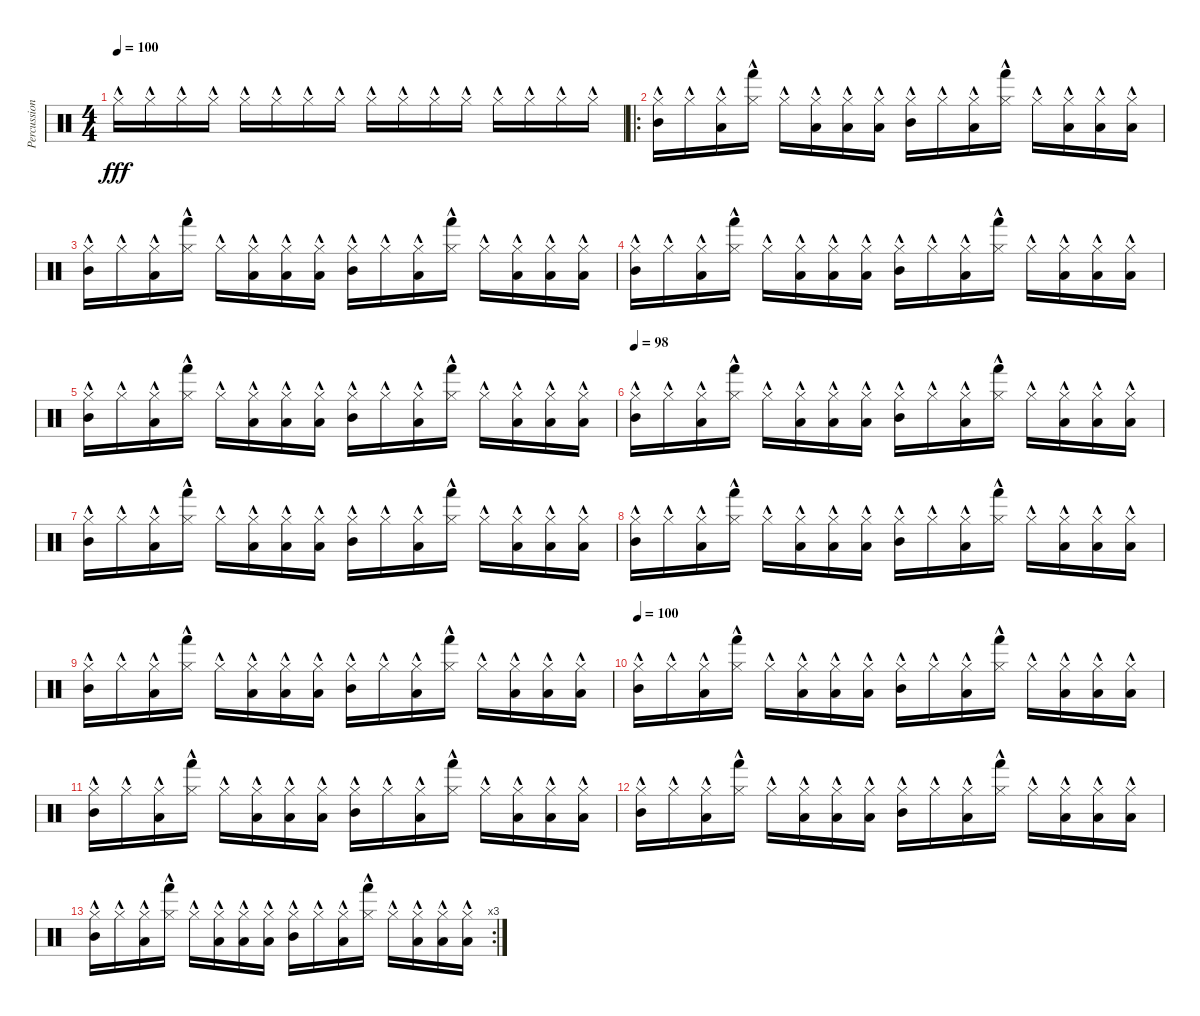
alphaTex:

\track ("Percussion" "Percussion") {instrument percussion}
\staff {score}
\articulation defaults
\ts (4 4)
\tempo 100
\clef neutral
\ks c "Hi-Hat (closed)"{hac}.16{dy fff} "Hi-Hat (closed)"{hac}.16 "Hi-Hat (closed)"{hac}.16 "Hi-Hat (closed)"{hac}.16 "Hi-Hat (closed)"{hac}.16 "Hi-Hat (closed)"{hac}.16 "Hi-Hat (closed)"{hac}.16 "Hi-Hat (closed)"{hac}.16 "Hi-Hat (closed)"{hac}.16 "Hi-Hat (closed)"{hac}.16 "Hi-Hat (closed)"{hac}.16 "Hi-Hat (closed)"{hac}.16 "Hi-Hat (closed)"{hac}.16 "Hi-Hat (closed)"{hac}.16 "Hi-Hat (closed)"{hac}.16 "Hi-Hat (closed)"{hac}.16
|
\ro
("Hi-Hat (closed)"{hac} "Mid Tom (hit)"{hac}).16 "Hi-Hat (closed)"{hac}.16 ("Hi-Hat (closed)"{hac} "Low Tom (hit)"{hac}).16 ("Hi-Hat (closed)"{hac} "Hand (hit)"{hac}).16 "Hi-Hat (closed)"{hac}.16 ("Hi-Hat (closed)"{hac} "Low Tom (hit)"{hac}).16 ("Hi-Hat (closed)"{hac} "Low Tom (hit)"{hac}).16 ("Hi-Hat (closed)"{hac} "Low Tom (hit)"{hac}).16 ("Hi-Hat (closed)"{hac} "Mid Tom (hit)"{hac}).16 "Hi-Hat (closed)"{hac}.16 ("Hi-Hat (closed)"{hac} "Low Tom (hit)"{hac}).16 ("Hi-Hat (closed)"{hac} "Hand (hit)"{hac}).16 "Hi-Hat (closed)"{hac}.16 ("Hi-Hat (closed)"{hac} "Low Tom (hit)"{hac}).16 ("Hi-Hat (closed)"{hac} "Low Tom (hit)"{hac}).16 ("Hi-Hat (closed)"{hac} "Low Tom (hit)"{hac}).16 |
("Hi-Hat (closed)"{hac} "Mid Tom (hit)"{hac}).16 "Hi-Hat (closed)"{hac}.16 ("Hi-Hat (closed)"{hac} "Low Tom (hit)"{hac}).16 ("Hi-Hat (closed)"{hac} "Hand (hit)"{hac}).16 "Hi-Hat (closed)"{hac}.16 ("Hi-Hat (closed)"{hac} "Low Tom (hit)"{hac}).16 ("Hi-Hat (closed)"{hac} "Low Tom (hit)"{hac}).16 ("Hi-Hat (closed)"{hac} "Low Tom (hit)"{hac}).16 ("Hi-Hat (closed)"{hac} "Mid Tom (hit)"{hac}).16 "Hi-Hat (closed)"{hac}.16 ("Hi-Hat (closed)"{hac} "Low Tom (hit)"{hac}).16 ("Hi-Hat (closed)"{hac} "Hand (hit)"{hac}).16 "Hi-Hat (closed)"{hac}.16 ("Hi-Hat (closed)"{hac} "Low Tom (hit)"{hac}).16 ("Hi-Hat (closed)"{hac} "Low Tom (hit)"{hac}).16 ("Hi-Hat (closed)"{hac} "Low Tom (hit)"{hac}).16 |
("Hi-Hat (closed)"{hac} "Mid Tom (hit)"{hac}).16 "Hi-Hat (closed)"{hac}.16 ("Hi-Hat (closed)"{hac} "Low Tom (hit)"{hac}).16 ("Hi-Hat (closed)"{hac} "Hand (hit)"{hac}).16 "Hi-Hat (closed)"{hac}.16 ("Hi-Hat (closed)"{hac} "Low Tom (hit)"{hac}).16 ("Hi-Hat (closed)"{hac} "Low Tom (hit)"{hac}).16 ("Hi-Hat (closed)"{hac} "Low Tom (hit)"{hac}).16 ("Hi-Hat (closed)"{hac} "Mid Tom (hit)"{hac}).16 "Hi-Hat (closed)"{hac}.16 ("Hi-Hat (closed)"{hac} "Low Tom (hit)"{hac}).16 ("Hi-Hat (closed)"{hac} "Hand (hit)"{hac}).16 "Hi-Hat (closed)"{hac}.16 ("Hi-Hat (closed)"{hac} "Low Tom (hit)"{hac}).16 ("Hi-Hat (closed)"{hac} "Low Tom (hit)"{hac}).16 ("Hi-Hat (closed)"{hac} "Low Tom (hit)"{hac}).16 |
("Hi-Hat (closed)"{hac} "Mid Tom (hit)"{hac}).16 "Hi-Hat (closed)"{hac}.16 ("Hi-Hat (closed)"{hac} "Low Tom (hit)"{hac}).16 ("Hi-Hat (closed)"{hac} "Hand (hit)"{hac}).16 "Hi-Hat (closed)"{hac}.16 ("Hi-Hat (closed)"{hac} "Low Tom (hit)"{hac}).16 ("Hi-Hat (closed)"{hac} "Low Tom (hit)"{hac}).16 ("Hi-Hat (closed)"{hac} "Low Tom (hit)"{hac}).16 ("Hi-Hat (closed)"{hac} "Mid Tom (hit)"{hac}).16 "Hi-Hat (closed)"{hac}.16 ("Hi-Hat (closed)"{hac} "Low Tom (hit)"{hac}).16 ("Hi-Hat (closed)"{hac} "Hand (hit)"{hac}).16 "Hi-Hat (closed)"{hac}.16 ("Hi-Hat (closed)"{hac} "Low Tom (hit)"{hac}).16 ("Hi-Hat (closed)"{hac} "Low Tom (hit)"{hac}).16 ("Hi-Hat (closed)"{hac} "Low Tom (hit)"{hac}).16 |
\tempo 98
("Hi-Hat (closed)"{hac} "Mid Tom (hit)"{hac}).16 "Hi-Hat (closed)"{hac}.16 ("Hi-Hat (closed)"{hac} "Low Tom (hit)"{hac}).16 ("Hi-Hat (closed)"{hac} "Hand (hit)"{hac}).16 "Hi-Hat (closed)"{hac}.16 ("Hi-Hat (closed)"{hac} "Low Tom (hit)"{hac}).16 ("Hi-Hat (closed)"{hac} "Low Tom (hit)"{hac}).16 ("Hi-Hat (closed)"{hac} "Low Tom (hit)"{hac}).16 ("Hi-Hat (closed)"{hac} "Mid Tom (hit)"{hac}).16 "Hi-Hat (closed)"{hac}.16 ("Hi-Hat (closed)"{hac} "Low Tom (hit)"{hac}).16 ("Hi-Hat (closed)"{hac} "Hand (hit)"{hac}).16 "Hi-Hat (closed)"{hac}.16 ("Hi-Hat (closed)"{hac} "Low Tom (hit)"{hac}).16 ("Hi-Hat (closed)"{hac} "Low Tom (hit)"{hac}).16 ("Hi-Hat (closed)"{hac} "Low Tom (hit)"{hac}).16 |
("Hi-Hat (closed)"{hac} "Mid Tom (hit)"{hac}).16 "Hi-Hat (closed)"{hac}.16 ("Hi-Hat (closed)"{hac} "Low Tom (hit)"{hac}).16 ("Hi-Hat (closed)"{hac} "Hand (hit)"{hac}).16 "Hi-Hat (closed)"{hac}.16 ("Hi-Hat (closed)"{hac} "Low Tom (hit)"{hac}).16 ("Hi-Hat (closed)"{hac} "Low Tom (hit)"{hac}).16 ("Hi-Hat (closed)"{hac} "Low Tom (hit)"{hac}).16 ("Hi-Hat (closed)"{hac} "Mid Tom (hit)"{hac}).16 "Hi-Hat (closed)"{hac}.16 ("Hi-Hat (closed)"{hac} "Low Tom (hit)"{hac}).16 ("Hi-Hat (closed)"{hac} "Hand (hit)"{hac}).16 "Hi-Hat (closed)"{hac}.16 ("Hi-Hat (closed)"{hac} "Low Tom (hit)"{hac}).16 ("Hi-Hat (closed)"{hac} "Low Tom (hit)"{hac}).16 ("Hi-Hat (closed)"{hac} "Low Tom (hit)"{hac}).16 |
("Hi-Hat (closed)"{hac} "Mid Tom (hit)"{hac}).16 "Hi-Hat (closed)"{hac}.16 ("Hi-Hat (closed)"{hac} "Low Tom (hit)"{hac}).16 ("Hi-Hat (closed)"{hac} "Hand (hit)"{hac}).16 "Hi-Hat (closed)"{hac}.16 ("Hi-Hat (closed)"{hac} "Low Tom (hit)"{hac}).16 ("Hi-Hat (closed)"{hac} "Low Tom (hit)"{hac}).16 ("Hi-Hat (closed)"{hac} "Low Tom (hit)"{hac}).16 ("Hi-Hat (closed)"{hac} "Mid Tom (hit)"{hac}).16 "Hi-Hat (closed)"{hac}.16 ("Hi-Hat (closed)"{hac} "Low Tom (hit)"{hac}).16 ("Hi-Hat (closed)"{hac} "Hand (hit)"{hac}).16 "Hi-Hat (closed)"{hac}.16 ("Hi-Hat (closed)"{hac} "Low Tom (hit)"{hac}).16 ("Hi-Hat (closed)"{hac} "Low Tom (hit)"{hac}).16 ("Hi-Hat (closed)"{hac} "Low Tom (hit)"{hac}).16 |
("Hi-Hat (closed)"{hac} "Mid Tom (hit)"{hac}).16 "Hi-Hat (closed)"{hac}.16 ("Hi-Hat (closed)"{hac} "Low Tom (hit)"{hac}).16 ("Hi-Hat (closed)"{hac} "Hand (hit)"{hac}).16 "Hi-Hat (closed)"{hac}.16 ("Hi-Hat (closed)"{hac} "Low Tom (hit)"{hac}).16 ("Hi-Hat (closed)"{hac} "Low Tom (hit)"{hac}).16 ("Hi-Hat (closed)"{hac} "Low Tom (hit)"{hac}).16 ("Hi-Hat (closed)"{hac} "Mid Tom (hit)"{hac}).16 "Hi-Hat (closed)"{hac}.16 ("Hi-Hat (closed)"{hac} "Low Tom (hit)"{hac}).16 ("Hi-Hat (closed)"{hac} "Hand (hit)"{hac}).16 "Hi-Hat (closed)"{hac}.16 ("Hi-Hat (closed)"{hac} "Low Tom (hit)"{hac}).16 ("Hi-Hat (closed)"{hac} "Low Tom (hit)"{hac}).16 ("Hi-Hat (closed)"{hac} "Low Tom (hit)"{hac}).16 |
\tempo 100
("Hi-Hat (closed)"{hac} "Mid Tom (hit)"{hac}).16 "Hi-Hat (closed)"{hac}.16 ("Hi-Hat (closed)"{hac} "Low Tom (hit)"{hac}).16 ("Hi-Hat (closed)"{hac} "Hand (hit)"{hac}).16 "Hi-Hat (closed)"{hac}.16 ("Hi-Hat (closed)"{hac} "Low Tom (hit)"{hac}).16 ("Hi-Hat (closed)"{hac} "Low Tom (hit)"{hac}).16 ("Hi-Hat (closed)"{hac} "Low Tom (hit)"{hac}).16 ("Hi-Hat (closed)"{hac} "Mid Tom (hit)"{hac}).16 "Hi-Hat (closed)"{hac}.16 ("Hi-Hat (closed)"{hac} "Low Tom (hit)"{hac}).16 ("Hi-Hat (closed)"{hac} "Hand (hit)"{hac}).16 "Hi-Hat (closed)"{hac}.16 ("Hi-Hat (closed)"{hac} "Low Tom (hit)"{hac}).16 ("Hi-Hat (closed)"{hac} "Low Tom (hit)"{hac}).16 ("Hi-Hat (closed)"{hac} "Low Tom (hit)"{hac}).16 |
("Hi-Hat (closed)"{hac} "Mid Tom (hit)"{hac}).16 "Hi-Hat (closed)"{hac}.16 ("Hi-Hat (closed)"{hac} "Low Tom (hit)"{hac}).16 ("Hi-Hat (closed)"{hac} "Hand (hit)"{hac}).16 "Hi-Hat (closed)"{hac}.16 ("Hi-Hat (closed)"{hac} "Low Tom (hit)"{hac}).16 ("Hi-Hat (closed)"{hac} "Low Tom (hit)"{hac}).16 ("Hi-Hat (closed)"{hac} "Low Tom (hit)"{hac}).16 ("Hi-Hat (closed)"{hac} "Mid Tom (hit)"{hac}).16 "Hi-Hat (closed)"{hac}.16 ("Hi-Hat (closed)"{hac} "Low Tom (hit)"{hac}).16 ("Hi-Hat (closed)"{hac} "Hand (hit)"{hac}).16 "Hi-Hat (closed)"{hac}.16 ("Hi-Hat (closed)"{hac} "Low Tom (hit)"{hac}).16 ("Hi-Hat (closed)"{hac} "Low Tom (hit)"{hac}).16 ("Hi-Hat (closed)"{hac} "Low Tom (hit)"{hac}).16 |
("Hi-Hat (closed)"{hac} "Mid Tom (hit)"{hac}).16 "Hi-Hat (closed)"{hac}.16 ("Hi-Hat (closed)"{hac} "Low Tom (hit)"{hac}).16 ("Hi-Hat (closed)"{hac} "Hand (hit)"{hac}).16 "Hi-Hat (closed)"{hac}.16 ("Hi-Hat (closed)"{hac} "Low Tom (hit)"{hac}).16 ("Hi-Hat (closed)"{hac} "Low Tom (hit)"{hac}).16 ("Hi-Hat (closed)"{hac} "Low Tom (hit)"{hac}).16 ("Hi-Hat (closed)"{hac} "Mid Tom (hit)"{hac}).16 "Hi-Hat (closed)"{hac}.16 ("Hi-Hat (closed)"{hac} "Low Tom (hit)"{hac}).16 ("Hi-Hat (closed)"{hac} "Hand (hit)"{hac}).16 "Hi-Hat (closed)"{hac}.16 ("Hi-Hat (closed)"{hac} "Low Tom (hit)"{hac}).16 ("Hi-Hat (closed)"{hac} "Low Tom (hit)"{hac}).16 ("Hi-Hat (closed)"{hac} "Low Tom (hit)"{hac}).16 |
\rc 3
("Hi-Hat (closed)"{hac} "Mid Tom (hit)"{hac}).16 "Hi-Hat (closed)"{hac}.16 ("Hi-Hat (closed)"{hac} "Low Tom (hit)"{hac}).16 ("Hi-Hat (closed)"{hac} "Hand (hit)"{hac}).16 "Hi-Hat (closed)"{hac}.16 ("Hi-Hat (closed)"{hac} "Low Tom (hit)"{hac}).16 ("Hi-Hat (closed)"{hac} "Low Tom (hit)"{hac}).16 ("Hi-Hat (closed)"{hac} "Low Tom (hit)"{hac}).16 ("Hi-Hat (closed)"{hac} "Mid Tom (hit)"{hac}).16 "Hi-Hat (closed)"{hac}.16 ("Hi-Hat (closed)"{hac} "Low Tom (hit)"{hac}).16 ("Hi-Hat (closed)"{hac} "Hand (hit)"{hac}).16 "Hi-Hat (closed)"{hac}.16 ("Hi-Hat (closed)"{hac} "Low Tom (hit)"{hac}).16 ("Hi-Hat (closed)"{hac} "Low Tom (hit)"{hac}).16 ("Hi-Hat (closed)"{hac} "Low Tom (hit)"{hac}).16
